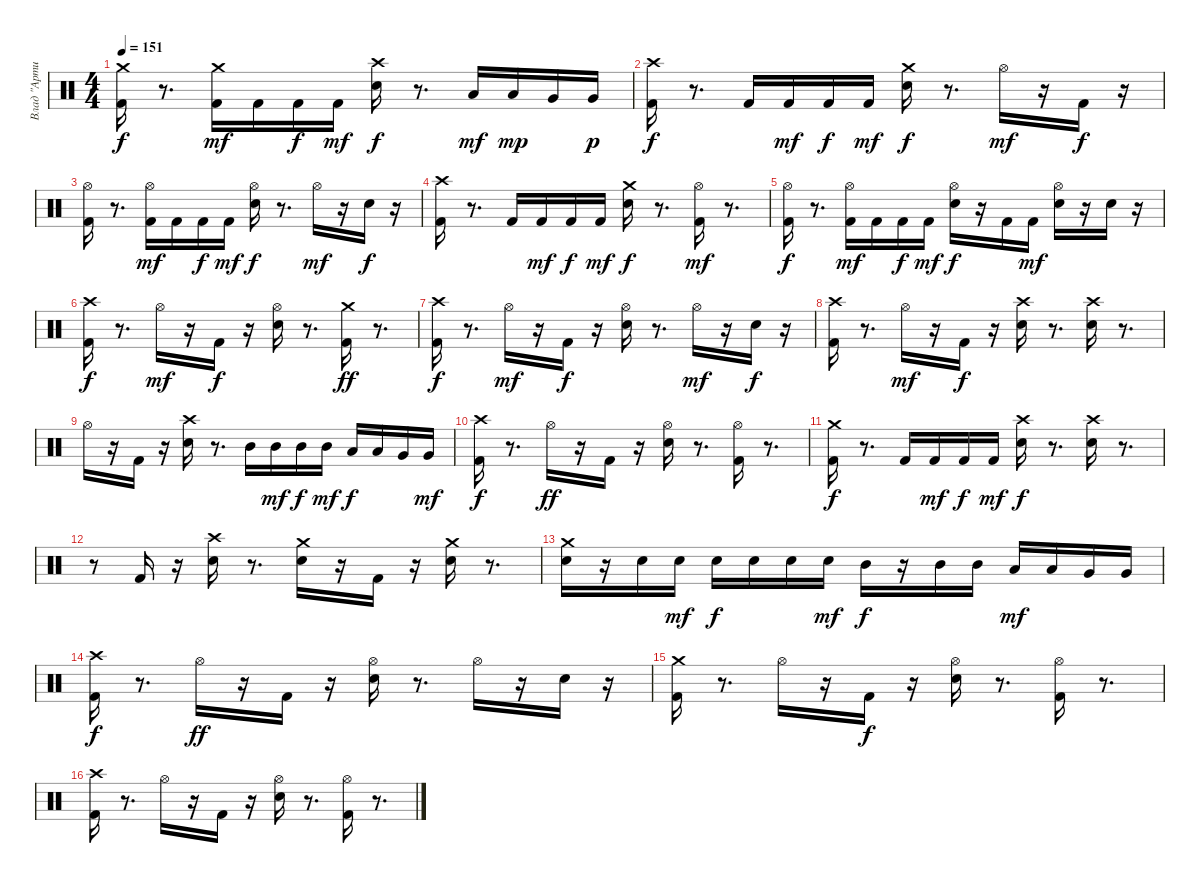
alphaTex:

\track ("Влад \"Артист\"" "Влад \"Арти") {instrument percussion}
\staff {score}
\articulation defaults
\ts (4 4)
\tempo 151
\clef neutral
\ks c
("Crash medium (hit)" "Kick (hit) 2").16{dy f} r.8{d} ("Kick (hit) 2" "Crash medium (hit)").16{dy mf} "Kick (hit) 2".16 "Kick (hit) 2".16{dy f} "Kick (hit) 2".16{dy mf} ("Snare (hit) 2" "Crash high (hit)").16{dy f} r.8{d} "Low Tom (hit)".16{dy mf} "Low Tom (hit)".16{dy mp} "Very Low Tom (hit)".16 "Very Low Tom (hit)".16{dy p} |
("Crash high (hit)" "Kick (hit) 2").16{dy f} r.8{d} "Kick (hit) 2".16 "Kick (hit) 2".16{dy mf} "Kick (hit) 2".16{dy f} "Kick (hit) 2".16{dy mf} ("Snare (hit) 2" "Crash medium (hit)").16{dy f} r.8{d} "Hi-Hat (open)".16{dy mf} r.16 "Kick (hit) 2".16{dy f} r.16 |
("Kick (hit) 2" "Hi-Hat (open)").16 r.8{d} ("Hi-Hat (open)" "Kick (hit) 2").16{dy mf} "Kick (hit) 2".16 "Kick (hit) 2".16{dy f} "Kick (hit) 2".16{dy mf} ("Hi-Hat (open)" "Snare (hit) 2").16{dy f} r.8{d} "Hi-Hat (open)".16{dy mf} r.16 "Snare (hit) 2".16{dy f} r.16 |
("Crash high (hit)" "Kick (hit) 2").16 r.8{d} "Kick (hit) 2".16 "Kick (hit) 2".16{dy mf} "Kick (hit) 2".16{dy f} "Kick (hit) 2".16{dy mf} ("Crash medium (hit)" "Snare (hit) 2").16{dy f} r.8{d} ("Hi-Hat (open)" "Kick (hit) 2").16{dy mf} r.8{d} |
("Kick (hit) 2" "Hi-Hat (open)").16{dy f} r.8{d} ("Hi-Hat (open)" "Kick (hit) 2").16{dy mf} "Kick (hit) 2".16 "Kick (hit) 2".16{dy f} "Kick (hit) 2".16{dy mf} ("Hi-Hat (open)" "Snare (hit) 2").16{dy f} r.16 "Kick (hit) 2".16 "Kick (hit) 2".16{dy mf} ("Hi-Hat (open)" "Snare (hit) 2").16 r.16 "Snare (hit) 2".16 r.16 |
("Crash high (hit)" "Kick (hit) 2").16{dy f} r.8{d} "Hi-Hat (open)".16{dy mf} r.16 "Kick (hit) 2".16{dy f} r.16 ("Hi-Hat (open)" "Snare (hit) 2").16 r.8{d} ("Kick (hit) 2" "Crash medium (hit)").16{dy ff} r.8{d} |
("Crash high (hit)" "Kick (hit) 2").16{dy f} r.8{d} "Hi-Hat (open)".16{dy mf} r.16 "Kick (hit) 2".16{dy f} r.16 ("Snare (hit) 2" "Hi-Hat (open)").16 r.8{d} "Hi-Hat (open)".16{dy mf} r.16 "Snare (hit) 2".16{dy f} r.16 |
("Crash high (hit)" "Kick (hit) 2").16 r.8{d} "Hi-Hat (open)".16{dy mf} r.16 "Kick (hit) 2".16{dy f} r.16 ("Crash high (hit)" "Snare (hit) 2").16 r.8{d} ("Crash high (hit)" "Snare (hit) 2").16 r.8{d} |
"Hi-Hat (open)".16 r.16 "Kick (hit) 2".16 r.16 ("Snare (hit) 2" "Crash high (hit)").16 r.8{d} "Mid Tom (hit)".16 "Mid Tom (hit)".16{dy mf} "Mid Tom (hit)".16{dy f} "Mid Tom (hit)".16{dy mf} "Low Tom (hit)".16{dy f} "Low Tom (hit)".16 "Very Low Tom (hit)".16 "Very Low Tom (hit)".16{dy mf} |
("Kick (hit) 2" "Crash high (hit)").16{dy f} r.8{d} "Hi-Hat (open)".16{dy ff} r.16 "Kick (hit) 2".16 r.16 ("Hi-Hat (open)" "Snare (hit) 2").16 r.8{d} ("Hi-Hat (open)" "Kick (hit) 2").16 r.8{d} |
("Kick (hit) 2" "Crash medium (hit)").16{dy f} r.8{d} "Kick (hit) 2".16 "Kick (hit) 2".16{dy mf} "Kick (hit) 2".16{dy f} "Kick (hit) 2".16{dy mf} ("Crash high (hit)" "Snare (hit) 2").16{dy f} r.8{d} ("Crash high (hit)" "Snare (hit) 2").16 r.8{d} |
r.8 "Kick (hit) 2".16 r.16 ("Crash high (hit)" "Snare (hit) 2").16 r.8{d} ("Snare (hit) 2" "Crash medium (hit)").16 r.16 "Kick (hit) 2".16 r.16 ("Snare (hit) 2" "Crash medium (hit)").16 r.8{d} |
("Crash medium (hit)" "Snare (hit) 2").16 r.16 "Snare (hit) 2".16 "Snare (hit) 2".16{dy mf} "Snare (hit) 2".16{dy f} "Snare (hit) 2".16 "Snare (hit) 2".16 "Snare (hit) 2".16{dy mf} "Mid Tom (hit)".16{dy f} r.16 "Mid Tom (hit)".16 "Mid Tom (hit)".16 "Low Tom (hit)".16{dy mf} "Low Tom (hit)".16 "Very Low Tom (hit)".16 "Very Low Tom (hit)".16 |
("Kick (hit) 2" "Crash high (hit)").16{dy f} r.8{d} "Hi-Hat (open)".16{dy ff} r.16 "Kick (hit) 2".16 r.16 ("Snare (hit) 2" "Hi-Hat (open)").16 r.8{d} "Hi-Hat (open)".16 r.16 "Snare (hit) 2".16 r.16 |
("Crash medium (hit)" "Kick (hit) 2").16 r.8{d} "Hi-Hat (open)".16 r.16 "Kick (hit) 2".16{dy f} r.16 ("Hi-Hat (open)" "Snare (hit) 2").16 r.8{d} ("Hi-Hat (open)" "Kick (hit) 2").16 r.8{d} |
("Crash high (hit)" "Kick (hit) 2").16 r.8{d} "Hi-Hat (open)".16 r.16 "Kick (hit) 2".16 r.16 ("Hi-Hat (open)" "Snare (hit) 2").16 r.8{d} ("Hi-Hat (open)" "Kick (hit) 2").16 r.8{d}
